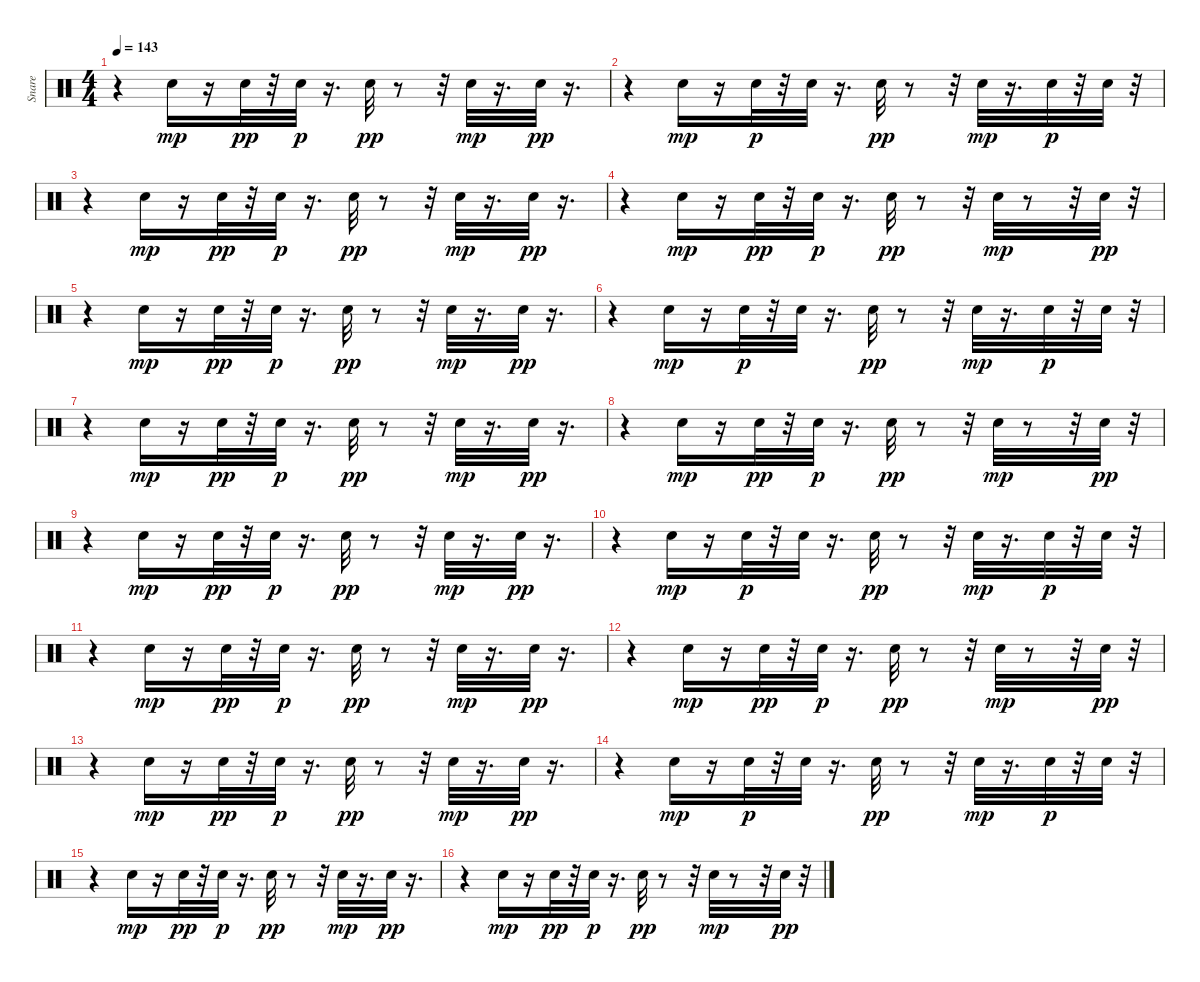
\track ("Snare    " "Snare    ") {instrument percussion}
\staff {score}
\articulation defaults
\ts (4 4)
\tempo 143
\clef neutral
\ks c
r.4{dy pp} "Electric Snare (hit)".16{dy mp} r.16 "Electric Snare (hit)".32{dy pp} r.32 "Snare (hit) 2".32{dy p} r.16{d} "Electric Snare (hit)".32{dy pp} r.8 r.32 "Electric Snare (hit)".32{dy mp} r.16{d} "Electric Snare (hit)".32{dy pp} r.16{d} |
r.4 "Electric Snare (hit)".16{dy mp} r.16 "Electric Snare (hit)".32{dy p} r.32 "Snare (hit) 2".32 r.16{d} "Electric Snare (hit)".32{dy pp} r.8 r.32 "Electric Snare (hit)".32{dy mp} r.16{d} "Snare (hit) 2".32{dy p} r.32 "Snare (hit) 2".32 r.32 |
r.4 "Electric Snare (hit)".16{dy mp} r.16 "Electric Snare (hit)".32{dy pp} r.32 "Snare (hit) 2".32{dy p} r.16{d} "Electric Snare (hit)".32{dy pp} r.8 r.32 "Electric Snare (hit)".32{dy mp} r.16{d} "Electric Snare (hit)".32{dy pp} r.16{d} |
r.4 "Electric Snare (hit)".16{dy mp} r.16 "Electric Snare (hit)".32{dy pp} r.32 "Snare (hit) 2".32{dy p} r.16{d} "Electric Snare (hit)".32{dy pp} r.8 r.32 "Electric Snare (hit)".32{dy mp} r.8 r.32 "Electric Snare (hit)".32{dy pp} r.32 |
r.4 "Electric Snare (hit)".16{dy mp} r.16 "Electric Snare (hit)".32{dy pp} r.32 "Snare (hit) 2".32{dy p} r.16{d} "Electric Snare (hit)".32{dy pp} r.8 r.32 "Electric Snare (hit)".32{dy mp} r.16{d} "Electric Snare (hit)".32{dy pp} r.16{d} |
r.4 "Electric Snare (hit)".16{dy mp} r.16 "Electric Snare (hit)".32{dy p} r.32 "Snare (hit) 2".32 r.16{d} "Electric Snare (hit)".32{dy pp} r.8 r.32 "Electric Snare (hit)".32{dy mp} r.16{d} "Snare (hit) 2".32{dy p} r.32 "Snare (hit) 2".32 r.32 |
r.4 "Electric Snare (hit)".16{dy mp} r.16 "Electric Snare (hit)".32{dy pp} r.32 "Snare (hit) 2".32{dy p} r.16{d} "Electric Snare (hit)".32{dy pp} r.8 r.32 "Electric Snare (hit)".32{dy mp} r.16{d} "Electric Snare (hit)".32{dy pp} r.16{d} |
r.4 "Electric Snare (hit)".16{dy mp} r.16 "Electric Snare (hit)".32{dy pp} r.32 "Snare (hit) 2".32{dy p} r.16{d} "Electric Snare (hit)".32{dy pp} r.8 r.32 "Electric Snare (hit)".32{dy mp} r.8 r.32 "Electric Snare (hit)".32{dy pp} r.32 |
r.4 "Electric Snare (hit)".16{dy mp} r.16 "Electric Snare (hit)".32{dy pp} r.32 "Snare (hit) 2".32{dy p} r.16{d} "Electric Snare (hit)".32{dy pp} r.8 r.32 "Electric Snare (hit)".32{dy mp} r.16{d} "Electric Snare (hit)".32{dy pp} r.16{d} |
r.4 "Electric Snare (hit)".16{dy mp} r.16 "Electric Snare (hit)".32{dy p} r.32 "Snare (hit) 2".32 r.16{d} "Electric Snare (hit)".32{dy pp} r.8 r.32 "Electric Snare (hit)".32{dy mp} r.16{d} "Snare (hit) 2".32{dy p} r.32 "Snare (hit) 2".32 r.32 |
r.4 "Electric Snare (hit)".16{dy mp} r.16 "Electric Snare (hit)".32{dy pp} r.32 "Snare (hit) 2".32{dy p} r.16{d} "Electric Snare (hit)".32{dy pp} r.8 r.32 "Electric Snare (hit)".32{dy mp} r.16{d} "Electric Snare (hit)".32{dy pp} r.16{d} |
r.4 "Electric Snare (hit)".16{dy mp} r.16 "Electric Snare (hit)".32{dy pp} r.32 "Snare (hit) 2".32{dy p} r.16{d} "Electric Snare (hit)".32{dy pp} r.8 r.32 "Electric Snare (hit)".32{dy mp} r.8 r.32 "Electric Snare (hit)".32{dy pp} r.32 |
r.4 "Electric Snare (hit)".16{dy mp} r.16 "Electric Snare (hit)".32{dy pp} r.32 "Snare (hit) 2".32{dy p} r.16{d} "Electric Snare (hit)".32{dy pp} r.8 r.32 "Electric Snare (hit)".32{dy mp} r.16{d} "Electric Snare (hit)".32{dy pp} r.16{d} |
r.4 "Electric Snare (hit)".16{dy mp} r.16 "Electric Snare (hit)".32{dy p} r.32 "Snare (hit) 2".32 r.16{d} "Electric Snare (hit)".32{dy pp} r.8 r.32 "Electric Snare (hit)".32{dy mp} r.16{d} "Snare (hit) 2".32{dy p} r.32 "Snare (hit) 2".32 r.32 |
r.4 "Electric Snare (hit)".16{dy mp} r.16 "Electric Snare (hit)".32{dy pp} r.32 "Snare (hit) 2".32{dy p} r.16{d} "Electric Snare (hit)".32{dy pp} r.8 r.32 "Electric Snare (hit)".32{dy mp} r.16{d} "Electric Snare (hit)".32{dy pp} r.16{d} |
r.4 "Electric Snare (hit)".16{dy mp} r.16 "Electric Snare (hit)".32{dy pp} r.32 "Snare (hit) 2".32{dy p} r.16{d} "Electric Snare (hit)".32{dy pp} r.8 r.32 "Electric Snare (hit)".32{dy mp} r.8 r.32 "Electric Snare (hit)".32{dy pp} r.32
